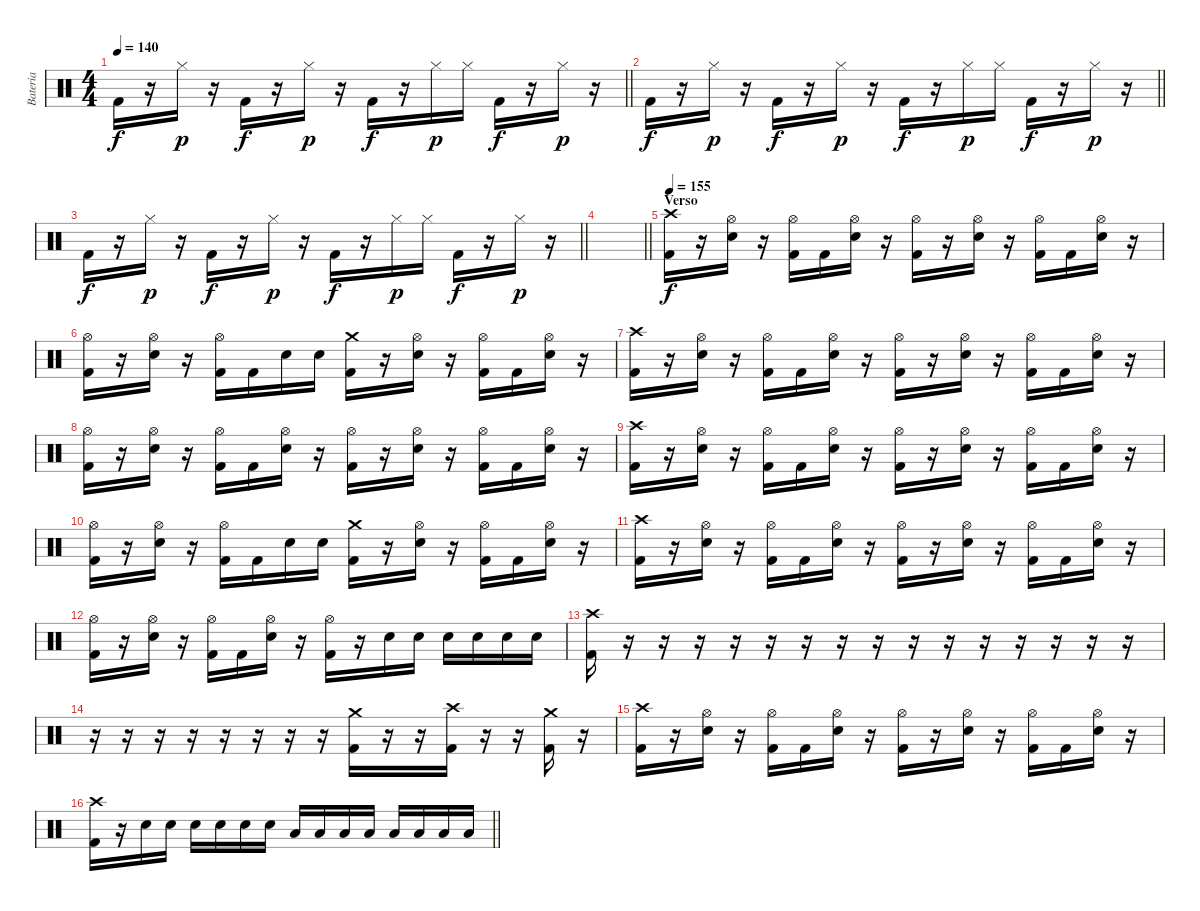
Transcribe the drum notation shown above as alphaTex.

\track ("Bateria" "Bateria") {instrument percussion}
\staff {score}
\articulation defaults
\ts (4 4)
\tempo 140
\clef neutral
\barLineRight lightlight
\ks c "Kick (hit) 2".16{dy f}
r.16 "Hi-Hat (closed)".16{dy p} r.16 "Kick (hit) 2".16{dy f} r.16 "Hi-Hat (closed)".16{dy p} r.16 "Kick (hit) 2".16{dy f} r.16 "Hi-Hat (closed)".16{dy p} "Hi-Hat (closed)".16 "Kick (hit) 2".16{dy f} r.16 "Hi-Hat (closed)".16{dy p} r.16 |
\barLineRight lightlight "Kick (hit) 2".16{dy f}
r.16 "Hi-Hat (closed)".16{dy p} r.16 "Kick (hit) 2".16{dy f} r.16 "Hi-Hat (closed)".16{dy p} r.16 "Kick (hit) 2".16{dy f} r.16 "Hi-Hat (closed)".16{dy p} "Hi-Hat (closed)".16 "Kick (hit) 2".16{dy f} r.16 "Hi-Hat (closed)".16{dy p} r.16 |
\barLineRight lightlight "Kick (hit) 2".16{dy f}
r.16 "Hi-Hat (closed)".16{dy p} r.16 "Kick (hit) 2".16{dy f} r.16 "Hi-Hat (closed)".16{dy p} r.16 "Kick (hit) 2".16{dy f} r.16 "Hi-Hat (closed)".16{dy p} "Hi-Hat (closed)".16 "Kick (hit) 2".16{dy f} r.16 "Hi-Hat (closed)".16{dy p} r.16 |
\barLineRight lightlight
|
\section ("" "Verso")
\tempo 155
("Crash high (hit)" "Kick (hit) 2").16{dy f} r.16 ("Hi-Hat (open)" "Snare (hit) 2").16 r.16 ("Hi-Hat (open)" "Kick (hit) 2").16 "Kick (hit) 2".16 ("Hi-Hat (open)" "Snare (hit) 2").16 r.16 ("Hi-Hat (open)" "Kick (hit) 2").16 r.16 ("Hi-Hat (open)" "Snare (hit) 2").16 r.16 ("Hi-Hat (open)" "Kick (hit) 2").16 "Kick (hit) 2".16 ("Hi-Hat (open)" "Snare (hit) 2").16 r.16 |
("Hi-Hat (open)" "Kick (hit) 2").16 r.16 ("Hi-Hat (open)" "Snare (hit) 2").16 r.16 ("Hi-Hat (open)" "Kick (hit) 2").16 "Kick (hit) 2".16 "Snare (hit) 2".16 "Snare (hit) 2".16 ("Crash medium (hit)" "Kick (hit) 2").16 r.16 ("Hi-Hat (open)" "Snare (hit) 2").16 r.16 ("Hi-Hat (open)" "Kick (hit) 2").16 "Kick (hit) 2".16 ("Hi-Hat (open)" "Snare (hit) 2").16 r.16 |
("Crash high (hit)" "Kick (hit) 2").16 r.16 ("Hi-Hat (open)" "Snare (hit) 2").16 r.16 ("Hi-Hat (open)" "Kick (hit) 2").16 "Kick (hit) 2".16 ("Hi-Hat (open)" "Snare (hit) 2").16 r.16 ("Hi-Hat (open)" "Kick (hit) 2").16 r.16 ("Hi-Hat (open)" "Snare (hit) 2").16 r.16 ("Hi-Hat (open)" "Kick (hit) 2").16 "Kick (hit) 2".16 ("Hi-Hat (open)" "Snare (hit) 2").16 r.16 |
("Hi-Hat (open)" "Kick (hit) 2").16 r.16 ("Hi-Hat (open)" "Snare (hit) 2").16 r.16 ("Hi-Hat (open)" "Kick (hit) 2").16 "Kick (hit) 2".16 ("Hi-Hat (open)" "Snare (hit) 2").16 r.16 ("Hi-Hat (open)" "Kick (hit) 2").16 r.16 ("Hi-Hat (open)" "Snare (hit) 2").16 r.16 ("Hi-Hat (open)" "Kick (hit) 2").16 "Kick (hit) 2".16 ("Hi-Hat (open)" "Snare (hit) 2").16 r.16 |
("Crash high (hit)" "Kick (hit) 2").16 r.16 ("Hi-Hat (open)" "Snare (hit) 2").16 r.16 ("Hi-Hat (open)" "Kick (hit) 2").16 "Kick (hit) 2".16 ("Hi-Hat (open)" "Snare (hit) 2").16 r.16 ("Hi-Hat (open)" "Kick (hit) 2").16 r.16 ("Hi-Hat (open)" "Snare (hit) 2").16 r.16 ("Hi-Hat (open)" "Kick (hit) 2").16 "Kick (hit) 2".16 ("Hi-Hat (open)" "Snare (hit) 2").16 r.16 |
("Hi-Hat (open)" "Kick (hit) 2").16 r.16 ("Hi-Hat (open)" "Snare (hit) 2").16 r.16 ("Hi-Hat (open)" "Kick (hit) 2").16 "Kick (hit) 2".16 "Snare (hit) 2".16 "Snare (hit) 2".16 ("Crash medium (hit)" "Kick (hit) 2").16 r.16 ("Hi-Hat (open)" "Snare (hit) 2").16 r.16 ("Hi-Hat (open)" "Kick (hit) 2").16 "Kick (hit) 2".16 ("Hi-Hat (open)" "Snare (hit) 2").16 r.16 |
("Crash high (hit)" "Kick (hit) 2").16 r.16 ("Hi-Hat (open)" "Snare (hit) 2").16 r.16 ("Hi-Hat (open)" "Kick (hit) 2").16 "Kick (hit) 2".16 ("Hi-Hat (open)" "Snare (hit) 2").16 r.16 ("Hi-Hat (open)" "Kick (hit) 2").16 r.16 ("Hi-Hat (open)" "Snare (hit) 2").16 r.16 ("Hi-Hat (open)" "Kick (hit) 2").16 "Kick (hit) 2".16 ("Hi-Hat (open)" "Snare (hit) 2").16 r.16 |
("Hi-Hat (open)" "Kick (hit) 2").16 r.16 ("Hi-Hat (open)" "Snare (hit) 2").16 r.16 ("Hi-Hat (open)" "Kick (hit) 2").16 "Kick (hit) 2".16 ("Hi-Hat (open)" "Snare (hit) 2").16 r.16 ("Hi-Hat (open)" "Kick (hit) 2").16 r.16 "Snare (hit) 2".16 "Snare (hit) 2".16 "Snare (hit) 2".16 "Snare (hit) 2".16 "Snare (hit) 2".16 "Snare (hit) 2".16 |
("Crash high (hit)" "Kick (hit) 2").16 r.16 r.16 r.16 r.16 r.16 r.16 r.16 r.16 r.16 r.16 r.16 r.16 r.16 r.16 r.16 |
r.16 r.16 r.16 r.16 r.16 r.16 r.16 r.16 ("Crash medium (hit)" "Kick (hit) 2").16 r.16 r.16 ("Crash high (hit)" "Kick (hit) 2").16 r.16 r.16 ("Crash medium (hit)" "Kick (hit) 2").16 r.16 |
("Crash high (hit)" "Kick (hit) 2").16 r.16 ("Hi-Hat (open)" "Snare (hit) 2").16 r.16 ("Hi-Hat (open)" "Kick (hit) 2").16 "Kick (hit) 2".16 ("Hi-Hat (open)" "Snare (hit) 2").16 r.16 ("Hi-Hat (open)" "Kick (hit) 2").16 r.16 ("Hi-Hat (open)" "Snare (hit) 2").16 r.16 ("Hi-Hat (open)" "Kick (hit) 2").16 "Kick (hit) 2".16 ("Hi-Hat (open)" "Snare (hit) 2").16 r.16 |
\barLineRight lightlight
("Crash high (hit)" "Kick (hit) 2").16 r.16 "Snare (hit) 2".16 "Snare (hit) 2".16 "Snare (hit) 2".16 "Snare (hit) 2".16 "Snare (hit) 2".16 "Snare (hit) 2".16 "Low Tom (hit)".16 "Low Tom (hit)".16 "Low Tom (hit)".16 "Low Tom (hit)".16 "Low Floor Tom (hit)".16 "Low Floor Tom (hit)".16 "Low Floor Tom (hit)".16 "Low Floor Tom (hit)".16
